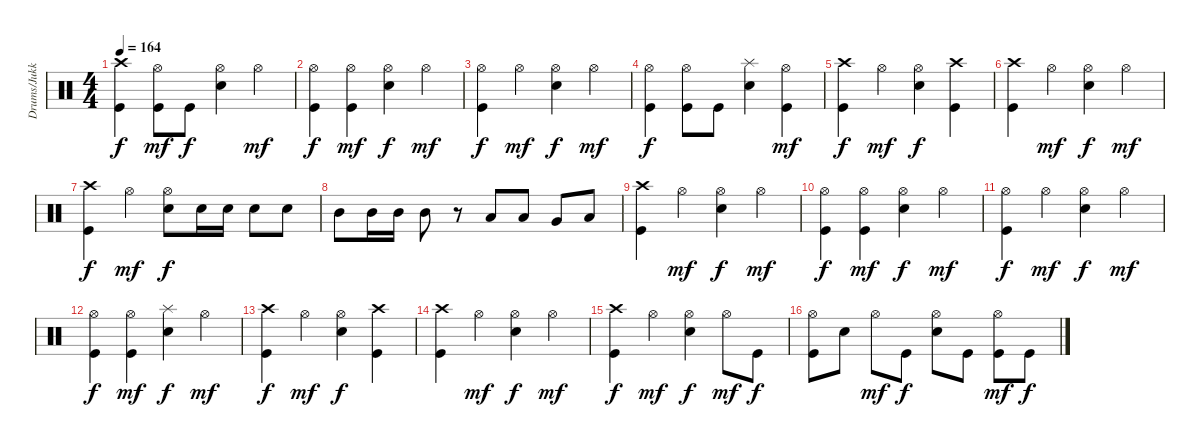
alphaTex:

\track ("Drums/Jukka" "Drums/Jukk") {instrument percussion}
\staff {score}
\articulation defaults
\ts (4 4)
\tempo 164
\clef neutral
\ks c
("Crash high (hit)" "Kick (hit)").4{dy f} ("Hi-Hat (open)" "Kick (hit)").8{dy mf} "Kick (hit)".8{dy f} ("Hi-Hat (open)" "Electric Snare (hit)").4 "Hi-Hat (open)".4{dy mf} |
("Hi-Hat (open)" "Kick (hit)").4{dy f} ("Hi-Hat (open)" "Kick (hit)").4{dy mf} ("Hi-Hat (open)" "Electric Snare (hit)").4{dy f} "Hi-Hat (open)".4{dy mf} |
("Hi-Hat (open)" "Kick (hit)").4{dy f} "Hi-Hat (open)".4{dy mf} ("Hi-Hat (open)" "Electric Snare (hit)").4{dy f} "Hi-Hat (open)".4{dy mf} |
("Hi-Hat (open)" "Kick (hit)").4{dy f} ("Hi-Hat (open)" "Kick (hit)").8 "Kick (hit)".8 ("Splash (hit)" "Electric Snare (hit)").4 ("Hi-Hat (open)" "Kick (hit)").4{dy mf} |
("Crash high (hit)" "Kick (hit)").4{dy f} "Hi-Hat (open)".4{dy mf} ("Hi-Hat (open)" "Electric Snare (hit)").4{dy f} ("Crash high (hit)" "Kick (hit)").4 |
("Crash high (hit)" "Kick (hit)").4 "Hi-Hat (open)".4{dy mf} ("Hi-Hat (open)" "Electric Snare (hit)").4{dy f} "Hi-Hat (open)".4{dy mf} |
("Crash high (hit)" "Kick (hit)").4{dy f} "Hi-Hat (open)".4{dy mf} ("Hi-Hat (open)" "Electric Snare (hit)").8{dy f} "Electric Snare (hit)".16 "Electric Snare (hit)".16 "Electric Snare (hit)".8 "Electric Snare (hit)".8 |
"Mid Tom (hit)".8 "Mid Tom (hit)".16 "Mid Tom (hit)".16 "Mid Tom (hit)".8 r.8 "Low Tom (hit)".8 "Low Tom (hit)".8 "Very Low Tom (hit)".8 "Low Floor Tom (hit)".8 |
("Crash high (hit)" "Kick (hit)").4 "Hi-Hat (open)".4{dy mf} ("Hi-Hat (open)" "Electric Snare (hit)").4{dy f} "Hi-Hat (open)".4{dy mf} |
("Hi-Hat (open)" "Kick (hit)").4{dy f} ("Hi-Hat (open)" "Kick (hit)").4{dy mf} ("Hi-Hat (open)" "Electric Snare (hit)").4{dy f} "Hi-Hat (open)".4{dy mf} |
("Hi-Hat (open)" "Kick (hit)").4{dy f} "Hi-Hat (open)".4{dy mf} ("Hi-Hat (open)" "Electric Snare (hit)").4{dy f} "Hi-Hat (open)".4{dy mf} |
("Hi-Hat (open)" "Kick (hit)").4{dy f} ("Hi-Hat (open)" "Kick (hit)").4{dy mf} ("Splash (hit)" "Electric Snare (hit)").4{dy f} "Hi-Hat (open)".4{dy mf} |
("Crash high (hit)" "Kick (hit)").4{dy f} "Hi-Hat (open)".4{dy mf} ("Hi-Hat (open)" "Electric Snare (hit)").4{dy f} ("Crash high (hit)" "Kick (hit)").4 |
("Crash high (hit)" "Kick (hit)").4 "Hi-Hat (open)".4{dy mf} ("Hi-Hat (open)" "Electric Snare (hit)").4{dy f} "Hi-Hat (open)".4{dy mf} |
("Crash high (hit)" "Kick (hit)").4{dy f} "Hi-Hat (open)".4{dy mf} ("Hi-Hat (open)" "Electric Snare (hit)").4{dy f} "Hi-Hat (open)".8{dy mf} "Kick (hit)".8{dy f} |
("Hi-Hat (open)" "Kick (hit)").8 "Electric Snare (hit)".8 "Hi-Hat (open)".8{dy mf} "Kick (hit)".8{dy f} ("Hi-Hat (open)" "Electric Snare (hit)").8 "Kick (hit)".8 ("Hi-Hat (open)" "Kick (hit)").8{dy mf} "Kick (hit)".8{dy f}
